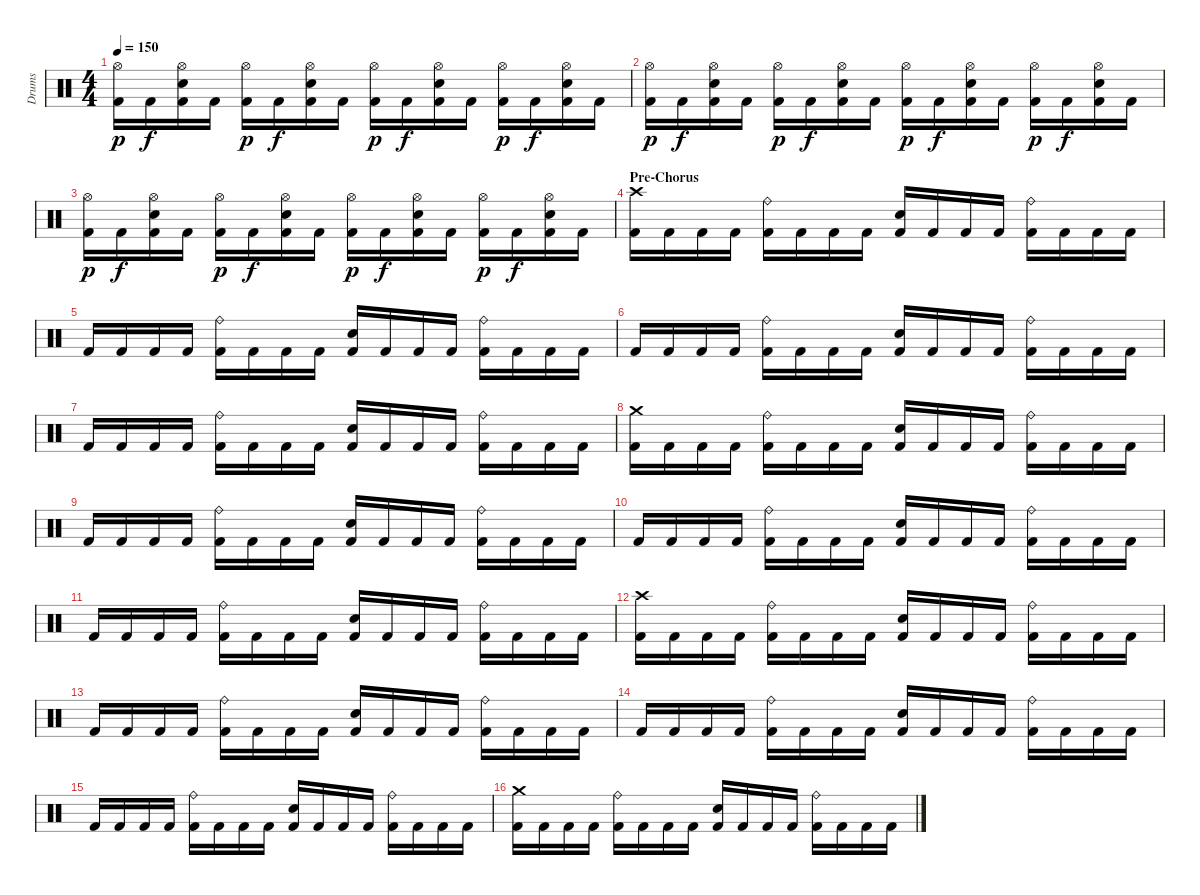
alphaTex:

\track ("Drums" "Drums") {instrument percussion}
\staff {score}
\articulation defaults
\ts (4 4)
\tempo 150
\clef neutral
\ks c
("Hi-Hat (open)" "Kick (hit) 2").16{dy p} "Kick (hit) 2".16{dy f} ("Hi-Hat (open)" "Snare (hit) 2" "Kick (hit) 2").16 "Kick (hit) 2".16 ("Hi-Hat (open)" "Kick (hit) 2").16{dy p} "Kick (hit) 2".16{dy f} ("Hi-Hat (open)" "Snare (hit) 2" "Kick (hit) 2").16 "Kick (hit) 2".16 ("Hi-Hat (open)" "Kick (hit) 2").16{dy p} "Kick (hit) 2".16{dy f} ("Hi-Hat (open)" "Snare (hit) 2" "Kick (hit) 2").16 "Kick (hit) 2".16 ("Hi-Hat (open)" "Kick (hit) 2").16{dy p} "Kick (hit) 2".16{dy f} ("Hi-Hat (open)" "Snare (hit) 2" "Kick (hit) 2").16 "Kick (hit) 2".16 |
("Hi-Hat (open)" "Kick (hit) 2").16{dy p} "Kick (hit) 2".16{dy f} ("Hi-Hat (open)" "Snare (hit) 2" "Kick (hit) 2").16 "Kick (hit) 2".16 ("Hi-Hat (open)" "Kick (hit) 2").16{dy p} "Kick (hit) 2".16{dy f} ("Hi-Hat (open)" "Snare (hit) 2" "Kick (hit) 2").16 "Kick (hit) 2".16 ("Hi-Hat (open)" "Kick (hit) 2").16{dy p} "Kick (hit) 2".16{dy f} ("Hi-Hat (open)" "Snare (hit) 2" "Kick (hit) 2").16 "Kick (hit) 2".16 ("Hi-Hat (open)" "Kick (hit) 2").16{dy p} "Kick (hit) 2".16{dy f} ("Hi-Hat (open)" "Snare (hit) 2" "Kick (hit) 2").16 "Kick (hit) 2".16 |
("Hi-Hat (open)" "Kick (hit) 2").16{dy p} "Kick (hit) 2".16{dy f} ("Hi-Hat (open)" "Snare (hit) 2" "Kick (hit) 2").16 "Kick (hit) 2".16 ("Hi-Hat (open)" "Kick (hit) 2").16{dy p} "Kick (hit) 2".16{dy f} ("Hi-Hat (open)" "Snare (hit) 2" "Kick (hit) 2").16 "Kick (hit) 2".16 ("Hi-Hat (open)" "Kick (hit) 2").16{dy p} "Kick (hit) 2".16{dy f} ("Hi-Hat (open)" "Snare (hit) 2" "Kick (hit) 2").16 "Kick (hit) 2".16 ("Hi-Hat (open)" "Kick (hit) 2").16{dy p} "Kick (hit) 2".16{dy f} ("Hi-Hat (open)" "Snare (hit) 2" "Kick (hit) 2").16 "Kick (hit) 2".16 |
\section ("" "Pre-Chorus")
("Crash high (hit)" "Kick (hit) 2").16 "Kick (hit) 2".16 "Kick (hit) 2".16 "Kick (hit) 2".16 ("Ride (bell)" "Kick (hit) 2").16 "Kick (hit) 2".16 "Kick (hit) 2".16 "Kick (hit) 2".16 ("Snare (hit) 2" "Kick (hit) 2").16 "Kick (hit) 2".16 "Kick (hit) 2".16 "Kick (hit) 2".16 ("Ride (bell)" "Kick (hit) 2").16 "Kick (hit) 2".16 "Kick (hit) 2".16 "Kick (hit) 2".16 |
"Kick (hit) 2".16 "Kick (hit) 2".16 "Kick (hit) 2".16 "Kick (hit) 2".16 ("Ride (bell)" "Kick (hit) 2").16 "Kick (hit) 2".16 "Kick (hit) 2".16 "Kick (hit) 2".16 ("Snare (hit) 2" "Kick (hit) 2").16 "Kick (hit) 2".16 "Kick (hit) 2".16 "Kick (hit) 2".16 ("Ride (bell)" "Kick (hit) 2").16 "Kick (hit) 2".16 "Kick (hit) 2".16 "Kick (hit) 2".16 |
"Kick (hit) 2".16 "Kick (hit) 2".16 "Kick (hit) 2".16 "Kick (hit) 2".16 ("Ride (bell)" "Kick (hit) 2").16 "Kick (hit) 2".16 "Kick (hit) 2".16 "Kick (hit) 2".16 ("Snare (hit) 2" "Kick (hit) 2").16 "Kick (hit) 2".16 "Kick (hit) 2".16 "Kick (hit) 2".16 ("Ride (bell)" "Kick (hit) 2").16 "Kick (hit) 2".16 "Kick (hit) 2".16 "Kick (hit) 2".16 |
"Kick (hit) 2".16 "Kick (hit) 2".16 "Kick (hit) 2".16 "Kick (hit) 2".16 ("Ride (bell)" "Kick (hit) 2").16 "Kick (hit) 2".16 "Kick (hit) 2".16 "Kick (hit) 2".16 ("Snare (hit) 2" "Kick (hit) 2").16 "Kick (hit) 2".16 "Kick (hit) 2".16 "Kick (hit) 2".16 ("Ride (bell)" "Kick (hit) 2").16 "Kick (hit) 2".16 "Kick (hit) 2".16 "Kick (hit) 2".16 |
("Crash medium (hit)" "Kick (hit) 2").16 "Kick (hit) 2".16 "Kick (hit) 2".16 "Kick (hit) 2".16 ("Ride (bell)" "Kick (hit) 2").16 "Kick (hit) 2".16 "Kick (hit) 2".16 "Kick (hit) 2".16 ("Snare (hit) 2" "Kick (hit) 2").16 "Kick (hit) 2".16 "Kick (hit) 2".16 "Kick (hit) 2".16 ("Ride (bell)" "Kick (hit) 2").16 "Kick (hit) 2".16 "Kick (hit) 2".16 "Kick (hit) 2".16 |
"Kick (hit) 2".16 "Kick (hit) 2".16 "Kick (hit) 2".16 "Kick (hit) 2".16 ("Ride (bell)" "Kick (hit) 2").16 "Kick (hit) 2".16 "Kick (hit) 2".16 "Kick (hit) 2".16 ("Snare (hit) 2" "Kick (hit) 2").16 "Kick (hit) 2".16 "Kick (hit) 2".16 "Kick (hit) 2".16 ("Ride (bell)" "Kick (hit) 2").16 "Kick (hit) 2".16 "Kick (hit) 2".16 "Kick (hit) 2".16 |
"Kick (hit) 2".16 "Kick (hit) 2".16 "Kick (hit) 2".16 "Kick (hit) 2".16 ("Ride (bell)" "Kick (hit) 2").16 "Kick (hit) 2".16 "Kick (hit) 2".16 "Kick (hit) 2".16 ("Snare (hit) 2" "Kick (hit) 2").16 "Kick (hit) 2".16 "Kick (hit) 2".16 "Kick (hit) 2".16 ("Ride (bell)" "Kick (hit) 2").16 "Kick (hit) 2".16 "Kick (hit) 2".16 "Kick (hit) 2".16 |
"Kick (hit) 2".16 "Kick (hit) 2".16 "Kick (hit) 2".16 "Kick (hit) 2".16 ("Ride (bell)" "Kick (hit) 2").16 "Kick (hit) 2".16 "Kick (hit) 2".16 "Kick (hit) 2".16 ("Snare (hit) 2" "Kick (hit) 2").16 "Kick (hit) 2".16 "Kick (hit) 2".16 "Kick (hit) 2".16 ("Ride (bell)" "Kick (hit) 2").16 "Kick (hit) 2".16 "Kick (hit) 2".16 "Kick (hit) 2".16 |
("Crash high (hit)" "Kick (hit) 2").16 "Kick (hit) 2".16 "Kick (hit) 2".16 "Kick (hit) 2".16 ("Ride (bell)" "Kick (hit) 2").16 "Kick (hit) 2".16 "Kick (hit) 2".16 "Kick (hit) 2".16 ("Snare (hit) 2" "Kick (hit) 2").16 "Kick (hit) 2".16 "Kick (hit) 2".16 "Kick (hit) 2".16 ("Ride (bell)" "Kick (hit) 2").16 "Kick (hit) 2".16 "Kick (hit) 2".16 "Kick (hit) 2".16 |
"Kick (hit) 2".16 "Kick (hit) 2".16 "Kick (hit) 2".16 "Kick (hit) 2".16 ("Ride (bell)" "Kick (hit) 2").16 "Kick (hit) 2".16 "Kick (hit) 2".16 "Kick (hit) 2".16 ("Snare (hit) 2" "Kick (hit) 2").16 "Kick (hit) 2".16 "Kick (hit) 2".16 "Kick (hit) 2".16 ("Ride (bell)" "Kick (hit) 2").16 "Kick (hit) 2".16 "Kick (hit) 2".16 "Kick (hit) 2".16 |
"Kick (hit) 2".16 "Kick (hit) 2".16 "Kick (hit) 2".16 "Kick (hit) 2".16 ("Ride (bell)" "Kick (hit) 2").16 "Kick (hit) 2".16 "Kick (hit) 2".16 "Kick (hit) 2".16 ("Snare (hit) 2" "Kick (hit) 2").16 "Kick (hit) 2".16 "Kick (hit) 2".16 "Kick (hit) 2".16 ("Ride (bell)" "Kick (hit) 2").16 "Kick (hit) 2".16 "Kick (hit) 2".16 "Kick (hit) 2".16 |
"Kick (hit) 2".16 "Kick (hit) 2".16 "Kick (hit) 2".16 "Kick (hit) 2".16 ("Ride (bell)" "Kick (hit) 2").16 "Kick (hit) 2".16 "Kick (hit) 2".16 "Kick (hit) 2".16 ("Snare (hit) 2" "Kick (hit) 2").16 "Kick (hit) 2".16 "Kick (hit) 2".16 "Kick (hit) 2".16 ("Ride (bell)" "Kick (hit) 2").16 "Kick (hit) 2".16 "Kick (hit) 2".16 "Kick (hit) 2".16 |
("Crash medium (hit)" "Kick (hit) 2").16 "Kick (hit) 2".16 "Kick (hit) 2".16 "Kick (hit) 2".16 ("Ride (bell)" "Kick (hit) 2").16 "Kick (hit) 2".16 "Kick (hit) 2".16 "Kick (hit) 2".16 ("Snare (hit) 2" "Kick (hit) 2").16 "Kick (hit) 2".16 "Kick (hit) 2".16 "Kick (hit) 2".16 ("Ride (bell)" "Kick (hit) 2").16 "Kick (hit) 2".16 "Kick (hit) 2".16 "Kick (hit) 2".16
